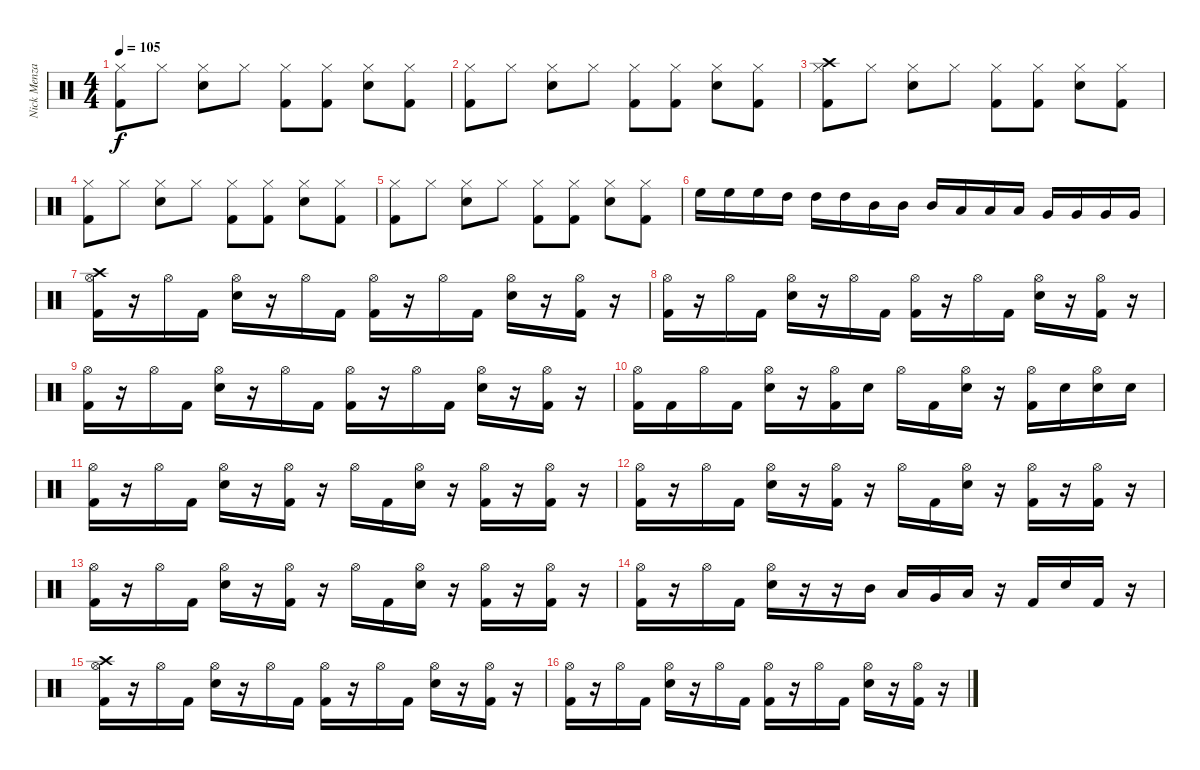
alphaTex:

\track ("Nick Menza" "Nick Menza") {instrument percussion}
\staff {score}
\articulation defaults
\ts (4 4)
\tempo 105
\clef neutral
\ks c
("Hi-Hat (closed)" "Kick (hit) 2").8{dy f} "Hi-Hat (closed)".8 ("Hi-Hat (closed)" "Electric Snare (hit)").8 "Hi-Hat (closed)".8 ("Hi-Hat (closed)" "Kick (hit) 2").8 ("Hi-Hat (closed)" "Kick (hit) 2").8 ("Hi-Hat (closed)" "Electric Snare (hit)").8 ("Hi-Hat (closed)" "Kick (hit) 2").8 |
("Hi-Hat (closed)" "Kick (hit) 2").8 "Hi-Hat (closed)".8 ("Hi-Hat (closed)" "Electric Snare (hit)").8 "Hi-Hat (closed)".8 ("Hi-Hat (closed)" "Kick (hit) 2").8 ("Hi-Hat (closed)" "Kick (hit) 2").8 ("Hi-Hat (closed)" "Electric Snare (hit)").8 ("Hi-Hat (closed)" "Kick (hit) 2").8 |
("Crash high (hit)" "Hi-Hat (closed)" "Kick (hit) 2").8 "Hi-Hat (closed)".8 ("Hi-Hat (closed)" "Electric Snare (hit)").8 "Hi-Hat (closed)".8 ("Hi-Hat (closed)" "Kick (hit) 2").8 ("Hi-Hat (closed)" "Kick (hit) 2").8 ("Hi-Hat (closed)" "Electric Snare (hit)").8 ("Hi-Hat (closed)" "Kick (hit) 2").8 |
("Hi-Hat (closed)" "Kick (hit) 2").8 "Hi-Hat (closed)".8 ("Hi-Hat (closed)" "Electric Snare (hit)").8 "Hi-Hat (closed)".8 ("Hi-Hat (closed)" "Kick (hit) 2").8 ("Hi-Hat (closed)" "Kick (hit) 2").8 ("Hi-Hat (closed)" "Electric Snare (hit)").8 ("Hi-Hat (closed)" "Kick (hit) 2").8 |
("Hi-Hat (closed)" "Kick (hit) 2").8 "Hi-Hat (closed)".8 ("Hi-Hat (closed)" "Electric Snare (hit)").8 "Hi-Hat (closed)".8 ("Hi-Hat (closed)" "Kick (hit) 2").8 ("Hi-Hat (closed)" "Kick (hit) 2").8 ("Hi-Hat (closed)" "Electric Snare (hit)").8 ("Hi-Hat (closed)" "Kick (hit) 2").8 |
"High Floor Tom (hit)".16 "High Floor Tom (hit)".16 "High Floor Tom (hit)".16 "High Tom (hit)".16 "High Tom (hit)".16 "High Tom (hit)".16 "Mid Tom (hit)".16 "Mid Tom (hit)".16 "Mid Tom (hit)".16 "Low Tom (hit)".16 "Low Tom (hit)".16 "Low Tom (hit)".16 "Very Low Tom (hit)".16 "Very Low Tom (hit)".16 "Very Low Tom (hit)".16 "Very Low Tom (hit)".16 |
("Crash high (hit)" "Hi-Hat (open)" "Kick (hit) 2").16 r.16 "Hi-Hat (open)".16 "Kick (hit) 2".16 ("Hi-Hat (open)" "Electric Snare (hit)").16 r.16 "Hi-Hat (open)".16 "Kick (hit) 2".16 ("Hi-Hat (open)" "Kick (hit) 2").16 r.16 "Hi-Hat (open)".16 "Kick (hit) 2".16 ("Hi-Hat (open)" "Electric Snare (hit)").16 r.16 ("Hi-Hat (open)" "Kick (hit) 2").16 r.16 |
("Hi-Hat (open)" "Kick (hit) 2").16 r.16 "Hi-Hat (open)".16 "Kick (hit) 2".16 ("Hi-Hat (open)" "Electric Snare (hit)").16 r.16 "Hi-Hat (open)".16 "Kick (hit) 2".16 ("Hi-Hat (open)" "Kick (hit) 2").16 r.16 "Hi-Hat (open)".16 "Kick (hit) 2".16 ("Hi-Hat (open)" "Electric Snare (hit)").16 r.16 ("Hi-Hat (open)" "Kick (hit) 2").16 r.16 |
("Hi-Hat (open)" "Kick (hit) 2").16 r.16 "Hi-Hat (open)".16 "Kick (hit) 2".16 ("Hi-Hat (open)" "Electric Snare (hit)").16 r.16 "Hi-Hat (open)".16 "Kick (hit) 2".16 ("Hi-Hat (open)" "Kick (hit) 2").16 r.16 "Hi-Hat (open)".16 "Kick (hit) 2".16 ("Hi-Hat (open)" "Electric Snare (hit)").16 r.16 ("Hi-Hat (open)" "Kick (hit) 2").16 r.16 |
("Hi-Hat (open)" "Kick (hit) 2").16 "Kick (hit) 2".16 "Hi-Hat (open)".16 "Kick (hit) 2".16 ("Hi-Hat (open)" "Electric Snare (hit)").16 r.16 ("Hi-Hat (open)" "Kick (hit) 2").16 "Electric Snare (hit)".16 "Hi-Hat (open)".16 "Kick (hit) 2".16 ("Hi-Hat (open)" "Electric Snare (hit)").16 r.16 ("Hi-Hat (open)" "Kick (hit) 2").16 "Electric Snare (hit)".16 ("Hi-Hat (open)" "Electric Snare (hit)").16 "Electric Snare (hit)".16 |
("Hi-Hat (open)" "Kick (hit) 2").16 r.16 "Hi-Hat (open)".16 "Kick (hit) 2".16 ("Hi-Hat (open)" "Electric Snare (hit)").16 r.16 ("Hi-Hat (open)" "Kick (hit) 2").16 r.16 "Hi-Hat (open)".16 "Kick (hit) 2".16 ("Hi-Hat (open)" "Electric Snare (hit)").16 r.16 ("Hi-Hat (open)" "Kick (hit) 2").16 r.16 ("Hi-Hat (open)" "Kick (hit) 2").16 r.16 |
("Hi-Hat (open)" "Kick (hit) 2").16 r.16 "Hi-Hat (open)".16 "Kick (hit) 2".16 ("Hi-Hat (open)" "Electric Snare (hit)").16 r.16 ("Hi-Hat (open)" "Kick (hit) 2").16 r.16 "Hi-Hat (open)".16 "Kick (hit) 2".16 ("Hi-Hat (open)" "Electric Snare (hit)").16 r.16 ("Hi-Hat (open)" "Kick (hit) 2").16 r.16 ("Hi-Hat (open)" "Kick (hit) 2").16 r.16 |
("Hi-Hat (open)" "Kick (hit) 2").16 r.16 "Hi-Hat (open)".16 "Kick (hit) 2".16 ("Hi-Hat (open)" "Electric Snare (hit)").16 r.16 ("Hi-Hat (open)" "Kick (hit) 2").16 r.16 "Hi-Hat (open)".16 "Kick (hit) 2".16 ("Hi-Hat (open)" "Electric Snare (hit)").16 r.16 ("Hi-Hat (open)" "Kick (hit) 2").16 r.16 ("Hi-Hat (open)" "Kick (hit) 2").16 r.16 |
("Hi-Hat (open)" "Kick (hit) 2").16 r.16 "Hi-Hat (open)".16 "Kick (hit) 2".16 ("Hi-Hat (open)" "Electric Snare (hit)").16 r.16 r.16 "Mid Tom (hit)".16 "Low Tom (hit)".16 "Very Low Tom (hit)".16 "Low Floor Tom (hit)".16 r.16 "Kick (hit) 2".16 "Electric Snare (hit)".16 "Kick (hit) 2".16 r.16 |
("Crash high (hit)" "Hi-Hat (open)" "Kick (hit) 2").16 r.16 "Hi-Hat (open)".16 "Kick (hit) 2".16 ("Hi-Hat (open)" "Electric Snare (hit)").16 r.16 "Hi-Hat (open)".16 "Kick (hit) 2".16 ("Hi-Hat (open)" "Kick (hit) 2").16 r.16 "Hi-Hat (open)".16 "Kick (hit) 2".16 ("Hi-Hat (open)" "Electric Snare (hit)").16 r.16 ("Hi-Hat (open)" "Kick (hit) 2").16 r.16 |
("Hi-Hat (open)" "Kick (hit) 2").16 r.16 "Hi-Hat (open)".16 "Kick (hit) 2".16 ("Hi-Hat (open)" "Electric Snare (hit)").16 r.16 "Hi-Hat (open)".16 "Kick (hit) 2".16 ("Hi-Hat (open)" "Kick (hit) 2").16 r.16 "Hi-Hat (open)".16 "Kick (hit) 2".16 ("Hi-Hat (open)" "Electric Snare (hit)").16 r.16 ("Hi-Hat (open)" "Kick (hit) 2").16 r.16
